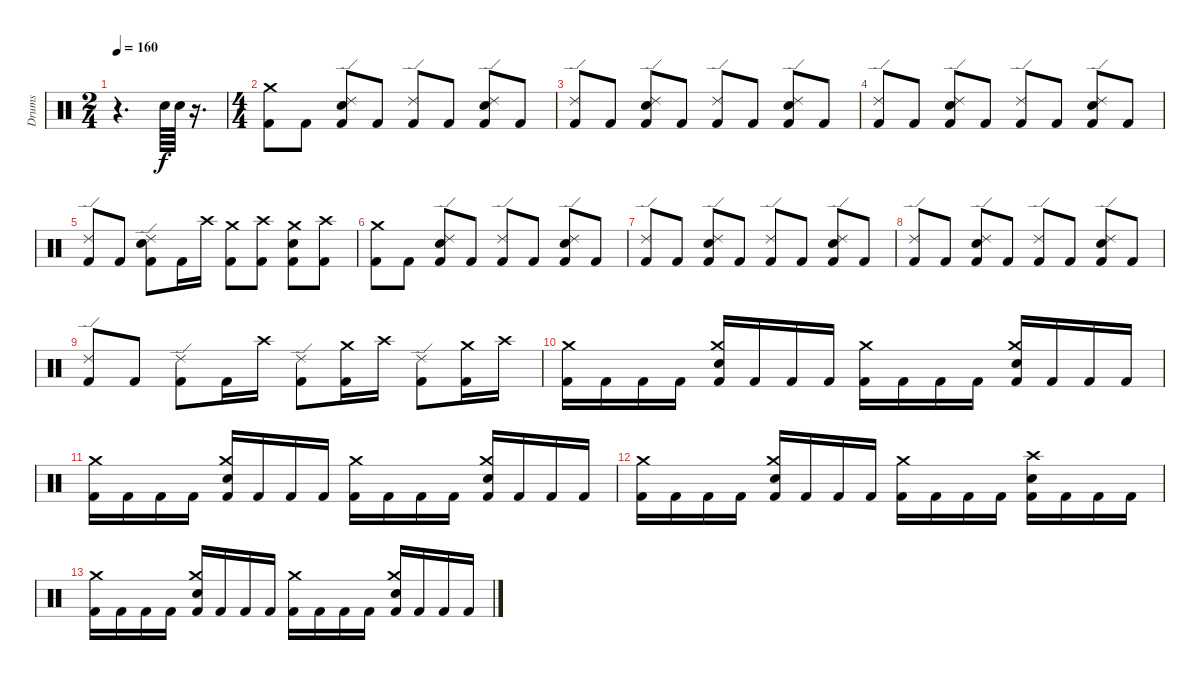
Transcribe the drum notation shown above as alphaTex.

\track ("Drums" "Drums") {instrument percussion}
\staff {score}
\articulation defaults
\ts (2 4)
\tempo 160
\clef neutral
\ks c
r.4{d dy f} "Electric Snare (hit)".64 "Electric Snare (hit)".64 r.16{d} |
\ts (4 4)
("Crash medium (hit)" "Kick (hit) 2").8 "Kick (hit) 2".8 ("Ride (edge) 2" "Electric Snare (hit)" "Kick (hit) 2").8 "Kick (hit) 2".8 ("Ride (edge) 2" "Kick (hit) 2").8 "Kick (hit) 2".8 ("Ride (edge) 2" "Electric Snare (hit)" "Kick (hit) 2").8 "Kick (hit) 2".8 |
("Ride (edge) 2" "Kick (hit) 2").8 "Kick (hit) 2".8 ("Ride (edge) 2" "Electric Snare (hit)" "Kick (hit) 2").8 "Kick (hit) 2".8 ("Ride (edge) 2" "Kick (hit) 2").8 "Kick (hit) 2".8 ("Ride (edge) 2" "Electric Snare (hit)" "Kick (hit) 2").8 "Kick (hit) 2".8 |
("Ride (edge) 2" "Kick (hit) 2").8 "Kick (hit) 2".8 ("Ride (edge) 2" "Electric Snare (hit)" "Kick (hit) 2").8 "Kick (hit) 2".8 ("Ride (edge) 2" "Kick (hit) 2").8 "Kick (hit) 2".8 ("Ride (edge) 2" "Electric Snare (hit)" "Kick (hit) 2").8 "Kick (hit) 2".8 |
("Ride (edge) 2" "Kick (hit) 2").8 "Kick (hit) 2".8 ("Ride (edge) 2" "Electric Snare (hit)" "Kick (hit) 2").8 "Kick (hit) 2".16 "Crash high (hit)".16 ("Crash medium (hit)" "Kick (hit) 2").8 ("Crash high (hit)" "Kick (hit) 2").8 ("Crash medium (hit)" "Electric Snare (hit)" "Kick (hit) 2").8 ("Crash high (hit)" "Kick (hit) 2").8 |
("Crash medium (hit)" "Kick (hit) 2").8 "Kick (hit) 2".8 ("Ride (edge) 2" "Electric Snare (hit)" "Kick (hit) 2").8 "Kick (hit) 2".8 ("Ride (edge) 2" "Kick (hit) 2").8 "Kick (hit) 2".8 ("Ride (edge) 2" "Electric Snare (hit)" "Kick (hit) 2").8 "Kick (hit) 2".8 |
("Ride (edge) 2" "Kick (hit) 2").8 "Kick (hit) 2".8 ("Ride (edge) 2" "Electric Snare (hit)" "Kick (hit) 2").8 "Kick (hit) 2".8 ("Ride (edge) 2" "Kick (hit) 2").8 "Kick (hit) 2".8 ("Ride (edge) 2" "Electric Snare (hit)" "Kick (hit) 2").8 "Kick (hit) 2".8 |
("Ride (edge) 2" "Kick (hit) 2").8 "Kick (hit) 2".8 ("Ride (edge) 2" "Electric Snare (hit)" "Kick (hit) 2").8 "Kick (hit) 2".8 ("Ride (edge) 2" "Kick (hit) 2").8 "Kick (hit) 2".8 ("Ride (edge) 2" "Electric Snare (hit)" "Kick (hit) 2").8 "Kick (hit) 2".8 |
("Ride (edge) 2" "Kick (hit) 2").8 "Kick (hit) 2".8 ("Ride (edge) 2" "Kick (hit) 2").8 "Kick (hit) 2".16 "Crash high (hit)".16 ("Ride (edge) 2" "Kick (hit) 2").8 ("Crash medium (hit)" "Kick (hit) 2").16 "Crash high (hit)".16 ("Ride (edge) 2" "Kick (hit) 2").8 ("Crash medium (hit)" "Kick (hit) 2").16 "Crash high (hit)".16 |
("Crash medium (hit)" "Kick (hit) 2").16 "Kick (hit) 2".16 "Kick (hit) 2".16 "Kick (hit) 2".16 ("Crash medium (hit)" "Electric Snare (hit)" "Kick (hit) 2").16 "Kick (hit) 2".16 "Kick (hit) 2".16 "Kick (hit) 2".16 ("Crash medium (hit)" "Kick (hit) 2").16 "Kick (hit) 2".16 "Kick (hit) 2".16 "Kick (hit) 2".16 ("Crash medium (hit)" "Electric Snare (hit)" "Kick (hit) 2").16 "Kick (hit) 2".16 "Kick (hit) 2".16 "Kick (hit) 2".16 |
("Crash medium (hit)" "Kick (hit) 2").16 "Kick (hit) 2".16 "Kick (hit) 2".16 "Kick (hit) 2".16 ("Crash medium (hit)" "Electric Snare (hit)" "Kick (hit) 2").16 "Kick (hit) 2".16 "Kick (hit) 2".16 "Kick (hit) 2".16 ("Crash medium (hit)" "Kick (hit) 2").16 "Kick (hit) 2".16 "Kick (hit) 2".16 "Kick (hit) 2".16 ("Crash medium (hit)" "Electric Snare (hit)" "Kick (hit) 2").16 "Kick (hit) 2".16 "Kick (hit) 2".16 "Kick (hit) 2".16 |
("Crash medium (hit)" "Kick (hit) 2").16 "Kick (hit) 2".16 "Kick (hit) 2".16 "Kick (hit) 2".16 ("Crash medium (hit)" "Electric Snare (hit)" "Kick (hit) 2").16 "Kick (hit) 2".16 "Kick (hit) 2".16 "Kick (hit) 2".16 ("Crash medium (hit)" "Kick (hit) 2").16 "Kick (hit) 2".16 "Kick (hit) 2".16 "Kick (hit) 2".16 ("Crash high (hit)" "Electric Snare (hit)" "Kick (hit) 2").16 "Kick (hit) 2".16 "Kick (hit) 2".16 "Kick (hit) 2".16 |
("Crash medium (hit)" "Kick (hit) 2").16 "Kick (hit) 2".16 "Kick (hit) 2".16 "Kick (hit) 2".16 ("Crash medium (hit)" "Electric Snare (hit)" "Kick (hit) 2").16 "Kick (hit) 2".16 "Kick (hit) 2".16 "Kick (hit) 2".16 ("Crash medium (hit)" "Kick (hit) 2").16 "Kick (hit) 2".16 "Kick (hit) 2".16 "Kick (hit) 2".16 ("Crash medium (hit)" "Electric Snare (hit)" "Kick (hit) 2").16 "Kick (hit) 2".16 "Kick (hit) 2".16 "Kick (hit) 2".16
